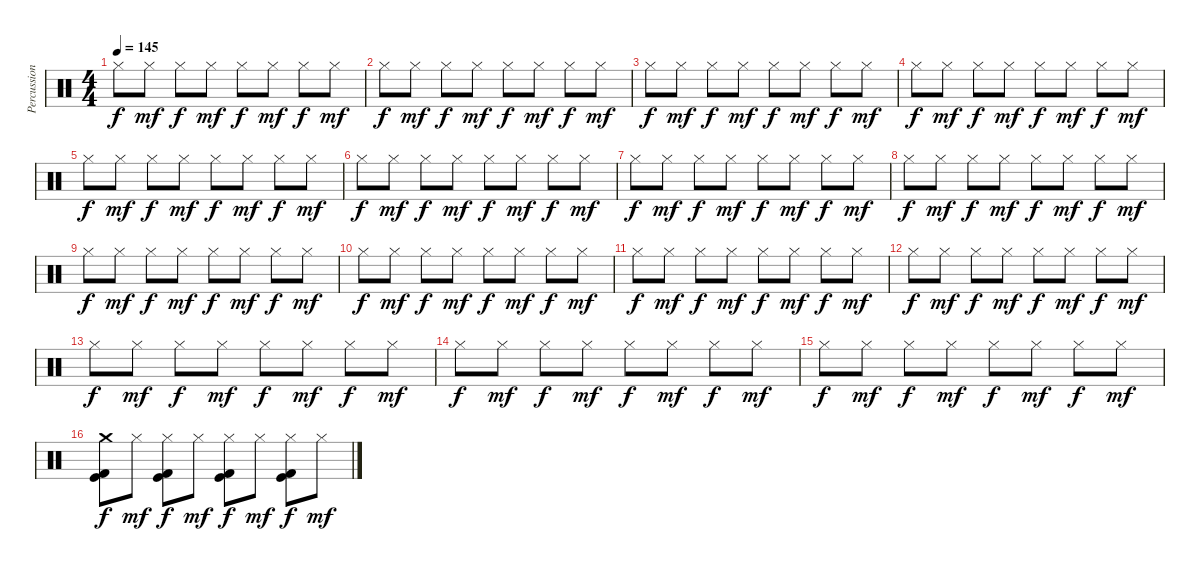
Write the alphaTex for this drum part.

\track ("Percussion" "Percussion") {instrument percussion}
\staff {score}
\articulation defaults
\ts (4 4)
\tempo 145
\clef neutral
\ks c "Hi-Hat (closed)".8{dy f} "Hi-Hat (closed)".8{dy mf} "Hi-Hat (closed)".8{dy f} "Hi-Hat (closed)".8{dy mf} "Hi-Hat (closed)".8{dy f} "Hi-Hat (closed)".8{dy mf} "Hi-Hat (closed)".8{dy f} "Hi-Hat (closed)".8{dy mf}
|
"Hi-Hat (closed)".8{dy f} "Hi-Hat (closed)".8{dy mf} "Hi-Hat (closed)".8{dy f} "Hi-Hat (closed)".8{dy mf} "Hi-Hat (closed)".8{dy f} "Hi-Hat (closed)".8{dy mf} "Hi-Hat (closed)".8{dy f} "Hi-Hat (closed)".8{dy mf} |
"Hi-Hat (closed)".8{dy f} "Hi-Hat (closed)".8{dy mf} "Hi-Hat (closed)".8{dy f} "Hi-Hat (closed)".8{dy mf} "Hi-Hat (closed)".8{dy f} "Hi-Hat (closed)".8{dy mf} "Hi-Hat (closed)".8{dy f} "Hi-Hat (closed)".8{dy mf} |
"Hi-Hat (closed)".8{dy f} "Hi-Hat (closed)".8{dy mf} "Hi-Hat (closed)".8{dy f} "Hi-Hat (closed)".8{dy mf} "Hi-Hat (closed)".8{dy f} "Hi-Hat (closed)".8{dy mf} "Hi-Hat (closed)".8{dy f} "Hi-Hat (closed)".8{dy mf} |
"Hi-Hat (closed)".8{dy f} "Hi-Hat (closed)".8{dy mf} "Hi-Hat (closed)".8{dy f} "Hi-Hat (closed)".8{dy mf} "Hi-Hat (closed)".8{dy f} "Hi-Hat (closed)".8{dy mf} "Hi-Hat (closed)".8{dy f} "Hi-Hat (closed)".8{dy mf} |
"Hi-Hat (closed)".8{dy f} "Hi-Hat (closed)".8{dy mf} "Hi-Hat (closed)".8{dy f} "Hi-Hat (closed)".8{dy mf} "Hi-Hat (closed)".8{dy f} "Hi-Hat (closed)".8{dy mf} "Hi-Hat (closed)".8{dy f} "Hi-Hat (closed)".8{dy mf} |
"Hi-Hat (closed)".8{dy f} "Hi-Hat (closed)".8{dy mf} "Hi-Hat (closed)".8{dy f} "Hi-Hat (closed)".8{dy mf} "Hi-Hat (closed)".8{dy f} "Hi-Hat (closed)".8{dy mf} "Hi-Hat (closed)".8{dy f} "Hi-Hat (closed)".8{dy mf} |
"Hi-Hat (closed)".8{dy f} "Hi-Hat (closed)".8{dy mf} "Hi-Hat (closed)".8{dy f} "Hi-Hat (closed)".8{dy mf} "Hi-Hat (closed)".8{dy f} "Hi-Hat (closed)".8{dy mf} "Hi-Hat (closed)".8{dy f} "Hi-Hat (closed)".8{dy mf} |
"Hi-Hat (closed)".8{dy f} "Hi-Hat (closed)".8{dy mf} "Hi-Hat (closed)".8{dy f} "Hi-Hat (closed)".8{dy mf} "Hi-Hat (closed)".8{dy f} "Hi-Hat (closed)".8{dy mf} "Hi-Hat (closed)".8{dy f} "Hi-Hat (closed)".8{dy mf} |
"Hi-Hat (closed)".8{dy f} "Hi-Hat (closed)".8{dy mf} "Hi-Hat (closed)".8{dy f} "Hi-Hat (closed)".8{dy mf} "Hi-Hat (closed)".8{dy f} "Hi-Hat (closed)".8{dy mf} "Hi-Hat (closed)".8{dy f} "Hi-Hat (closed)".8{dy mf} |
"Hi-Hat (closed)".8{dy f} "Hi-Hat (closed)".8{dy mf} "Hi-Hat (closed)".8{dy f} "Hi-Hat (closed)".8{dy mf} "Hi-Hat (closed)".8{dy f} "Hi-Hat (closed)".8{dy mf} "Hi-Hat (closed)".8{dy f} "Hi-Hat (closed)".8{dy mf} |
"Hi-Hat (closed)".8{dy f} "Hi-Hat (closed)".8{dy mf} "Hi-Hat (closed)".8{dy f} "Hi-Hat (closed)".8{dy mf} "Hi-Hat (closed)".8{dy f} "Hi-Hat (closed)".8{dy mf} "Hi-Hat (closed)".8{dy f} "Hi-Hat (closed)".8{dy mf} |
"Hi-Hat (closed)".8{dy f} "Hi-Hat (closed)".8{dy mf} "Hi-Hat (closed)".8{dy f} "Hi-Hat (closed)".8{dy mf} "Hi-Hat (closed)".8{dy f} "Hi-Hat (closed)".8{dy mf} "Hi-Hat (closed)".8{dy f} "Hi-Hat (closed)".8{dy mf} |
"Hi-Hat (closed)".8{dy f} "Hi-Hat (closed)".8{dy mf} "Hi-Hat (closed)".8{dy f} "Hi-Hat (closed)".8{dy mf} "Hi-Hat (closed)".8{dy f} "Hi-Hat (closed)".8{dy mf} "Hi-Hat (closed)".8{dy f} "Hi-Hat (closed)".8{dy mf} |
"Hi-Hat (closed)".8{dy f} "Hi-Hat (closed)".8{dy mf} "Hi-Hat (closed)".8{dy f} "Hi-Hat (closed)".8{dy mf} "Hi-Hat (closed)".8{dy f} "Hi-Hat (closed)".8{dy mf} "Hi-Hat (closed)".8{dy f} "Hi-Hat (closed)".8{dy mf} |
("Crash medium (hit)" "Kick (hit)" "Kick (hit) 2").8{dy f} "Hi-Hat (closed)".8{dy mf} ("Hi-Hat (closed)" "Kick (hit)" "Kick (hit) 2").8{dy f} "Hi-Hat (closed)".8{dy mf} ("Hi-Hat (closed)" "Kick (hit)" "Kick (hit) 2").8{dy f} "Hi-Hat (closed)".8{dy mf} ("Hi-Hat (closed)" "Kick (hit)" "Kick (hit) 2").8{dy f} "Hi-Hat (closed)".8{dy mf}
